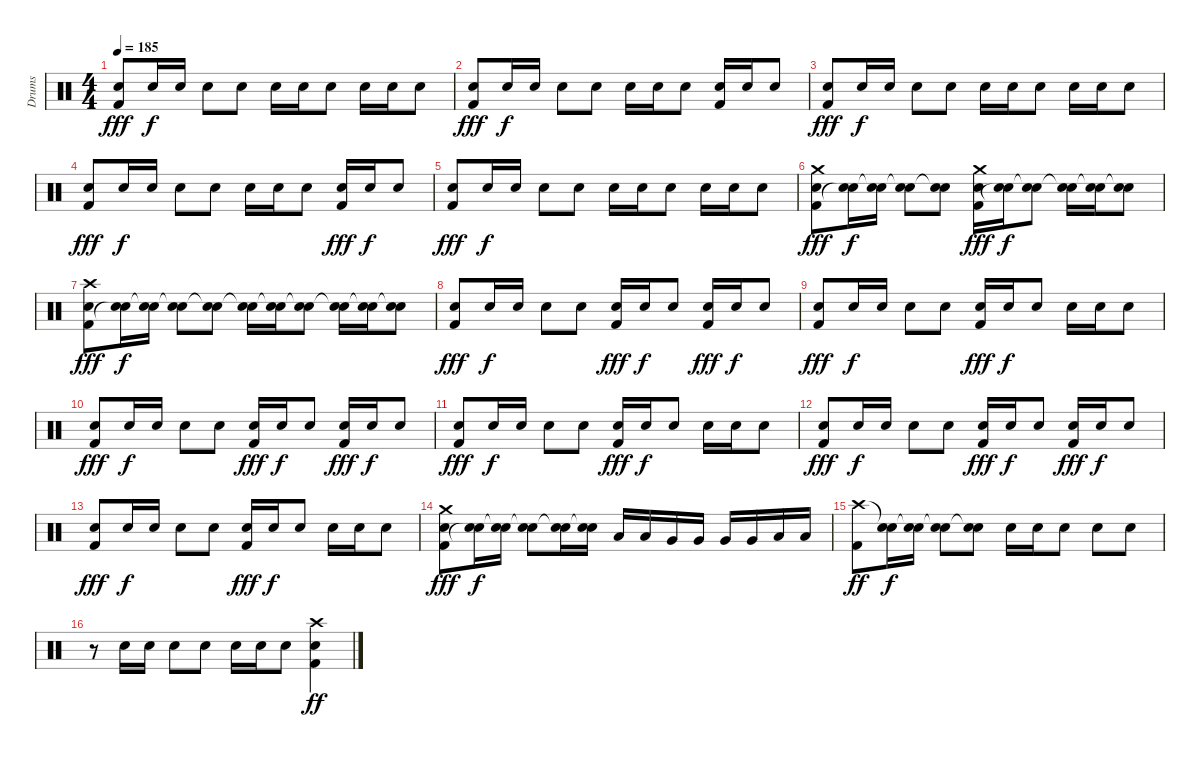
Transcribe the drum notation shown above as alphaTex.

\track ("Drums" "Drums") {instrument percussion}
\staff {score}
\articulation defaults
\ts (4 4)
\tempo 185
\clef neutral
\ks c
("Snare (hit) 2" "Kick (hit) 2").8{dy fff} "Snare (hit) 2".16{dy f} "Snare (hit) 2".16 "Snare (hit) 2".8 "Snare (hit) 2".8 "Snare (hit) 2".16 "Snare (hit) 2".16 "Snare (hit) 2".8 "Snare (hit) 2".16 "Snare (hit) 2".16 "Snare (hit) 2".8 |
("Snare (hit) 2" "Kick (hit) 2").8{dy fff} "Snare (hit) 2".16{dy f} "Snare (hit) 2".16 "Snare (hit) 2".8 "Snare (hit) 2".8 "Snare (hit) 2".16 "Snare (hit) 2".16 "Snare (hit) 2".8 ("Snare (hit) 2" "Kick (hit) 2").16 "Snare (hit) 2".16 "Snare (hit) 2".8 |
("Snare (hit) 2" "Kick (hit) 2").8{dy fff} "Snare (hit) 2".16{dy f} "Snare (hit) 2".16 "Snare (hit) 2".8 "Snare (hit) 2".8 "Snare (hit) 2".16 "Snare (hit) 2".16 "Snare (hit) 2".8 "Snare (hit) 2".16 "Snare (hit) 2".16 "Snare (hit) 2".8 |
("Snare (hit) 2" "Kick (hit) 2").8{dy fff} "Snare (hit) 2".16{dy f} "Snare (hit) 2".16 "Snare (hit) 2".8 "Snare (hit) 2".8 "Snare (hit) 2".16 "Snare (hit) 2".16 "Snare (hit) 2".8 ("Snare (hit) 2" "Kick (hit) 2").16{dy fff} "Snare (hit) 2".16{dy f} "Snare (hit) 2".8 |
("Snare (hit) 2" "Kick (hit) 2").8{dy fff} "Snare (hit) 2".16{dy f} "Snare (hit) 2".16 "Snare (hit) 2".8 "Snare (hit) 2".8 "Snare (hit) 2".16 "Snare (hit) 2".16 "Snare (hit) 2".8 "Snare (hit) 2".16 "Snare (hit) 2".16 "Snare (hit) 2".8 |
("Snare (hit) 2" "Kick (hit) 2" "Crash medium (hit)").8{dy fff} ("Snare (hit) 2" "Snare (hit)"{t}).16{dy f} ("Snare (hit) 2" "Snare (hit)"{t}).16 ("Snare (hit) 2" "Snare (hit)"{t}).8 ("Snare (hit) 2" "Snare (hit)"{t}).8 ("Snare (hit) 2" "Kick (hit) 2" "Crash medium (hit)").16{dy fff} ("Snare (hit) 2" "Snare (hit)"{t}).16{dy f} ("Snare (hit) 2" "Snare (hit)"{t}).8 ("Snare (hit) 2" "Snare (hit)"{t}).16 ("Snare (hit) 2" "Snare (hit)"{t}).16 ("Snare (hit) 2" "Snare (hit)"{t}).8 |
("Snare (hit) 2" "Kick (hit) 2" "Crash high (hit)").8{dy fff} ("Snare (hit) 2" "Snare (hit)"{t}).16{dy f} ("Snare (hit) 2" "Snare (hit)"{t}).16 ("Snare (hit) 2" "Snare (hit)"{t}).8 ("Snare (hit) 2" "Snare (hit)"{t}).8 ("Snare (hit) 2" "Snare (hit)"{t}).16 ("Snare (hit) 2" "Snare (hit)"{t}).16 ("Snare (hit) 2" "Snare (hit)"{t}).8 ("Snare (hit) 2" "Snare (hit)"{t}).16 ("Snare (hit) 2" "Snare (hit)"{t}).16 ("Snare (hit) 2" "Snare (hit)"{t}).8 |
("Snare (hit) 2" "Kick (hit) 2").8{dy fff} "Snare (hit) 2".16{dy f} "Snare (hit) 2".16 "Snare (hit) 2".8 "Snare (hit) 2".8 ("Snare (hit) 2" "Kick (hit) 2").16{dy fff} "Snare (hit) 2".16{dy f} "Snare (hit) 2".8 ("Snare (hit) 2" "Kick (hit) 2").16{dy fff} "Snare (hit) 2".16{dy f} "Snare (hit) 2".8 |
("Snare (hit) 2" "Kick (hit) 2").8{dy fff} "Snare (hit) 2".16{dy f} "Snare (hit) 2".16 "Snare (hit) 2".8 "Snare (hit) 2".8 ("Snare (hit) 2" "Kick (hit) 2").16{dy fff} "Snare (hit) 2".16{dy f} "Snare (hit) 2".8 "Snare (hit) 2".16 "Snare (hit) 2".16 "Snare (hit) 2".8 |
("Snare (hit) 2" "Kick (hit) 2").8{dy fff} "Snare (hit) 2".16{dy f} "Snare (hit) 2".16 "Snare (hit) 2".8 "Snare (hit) 2".8 ("Snare (hit) 2" "Kick (hit) 2").16{dy fff} "Snare (hit) 2".16{dy f} "Snare (hit) 2".8 ("Snare (hit) 2" "Kick (hit) 2").16{dy fff} "Snare (hit) 2".16{dy f} "Snare (hit) 2".8 |
("Snare (hit) 2" "Kick (hit) 2").8{dy fff} "Snare (hit) 2".16{dy f} "Snare (hit) 2".16 "Snare (hit) 2".8 "Snare (hit) 2".8 ("Snare (hit) 2" "Kick (hit) 2").16{dy fff} "Snare (hit) 2".16{dy f} "Snare (hit) 2".8 "Snare (hit) 2".16 "Snare (hit) 2".16 "Snare (hit) 2".8 |
("Snare (hit) 2" "Kick (hit) 2").8{dy fff} "Snare (hit) 2".16{dy f} "Snare (hit) 2".16 "Snare (hit) 2".8 "Snare (hit) 2".8 ("Snare (hit) 2" "Kick (hit) 2").16{dy fff} "Snare (hit) 2".16{dy f} "Snare (hit) 2".8 ("Snare (hit) 2" "Kick (hit) 2").16{dy fff} "Snare (hit) 2".16{dy f} "Snare (hit) 2".8 |
("Snare (hit) 2" "Kick (hit) 2").8{dy fff} "Snare (hit) 2".16{dy f} "Snare (hit) 2".16 "Snare (hit) 2".8 "Snare (hit) 2".8 ("Snare (hit) 2" "Kick (hit) 2").16{dy fff} "Snare (hit) 2".16{dy f} "Snare (hit) 2".8 "Snare (hit) 2".16 "Snare (hit) 2".16 "Snare (hit) 2".8 |
("Snare (hit) 2" "Kick (hit) 2" "Crash medium (hit)").8{dy fff} ("Snare (hit) 2" "Snare (hit)"{t}).16{dy f} ("Snare (hit) 2" "Snare (hit)"{t}).16 ("Snare (hit) 2" "Snare (hit)"{t}).8 ("Snare (hit) 2" "Snare (hit)"{t}).16 ("Snare (hit) 2" "Snare (hit)"{t}).16 "Low Tom (hit)".16 "Low Tom (hit)".16 "Very Low Tom (hit)".16 "Very Low Tom (hit)".16 "Very Low Tom (hit)".16 "Very Low Tom (hit)".16 "Low Floor Tom (hit)".16 "Low Floor Tom (hit)".16 |
("Kick (hit) 2" "Crash high (hit)").8{dy ff} ("Snare (hit) 2" "Snare (hit)"{t}).16{dy f} ("Snare (hit) 2" "Snare (hit)"{t}).16 ("Snare (hit) 2" "Snare (hit)"{t}).8 ("Snare (hit) 2" "Snare (hit)"{t}).8 "Snare (hit) 2".16 "Snare (hit) 2".16 "Snare (hit) 2".8 "Snare (hit) 2".8 "Snare (hit) 2".8 |
r.8 "Snare (hit) 2".16 "Snare (hit) 2".16 "Snare (hit) 2".8 "Snare (hit) 2".8 "Snare (hit) 2".16 "Snare (hit) 2".16 "Snare (hit) 2".8 ("Snare (hit) 2" "Kick (hit) 2" "Crash high (hit)").4{dy ff}
